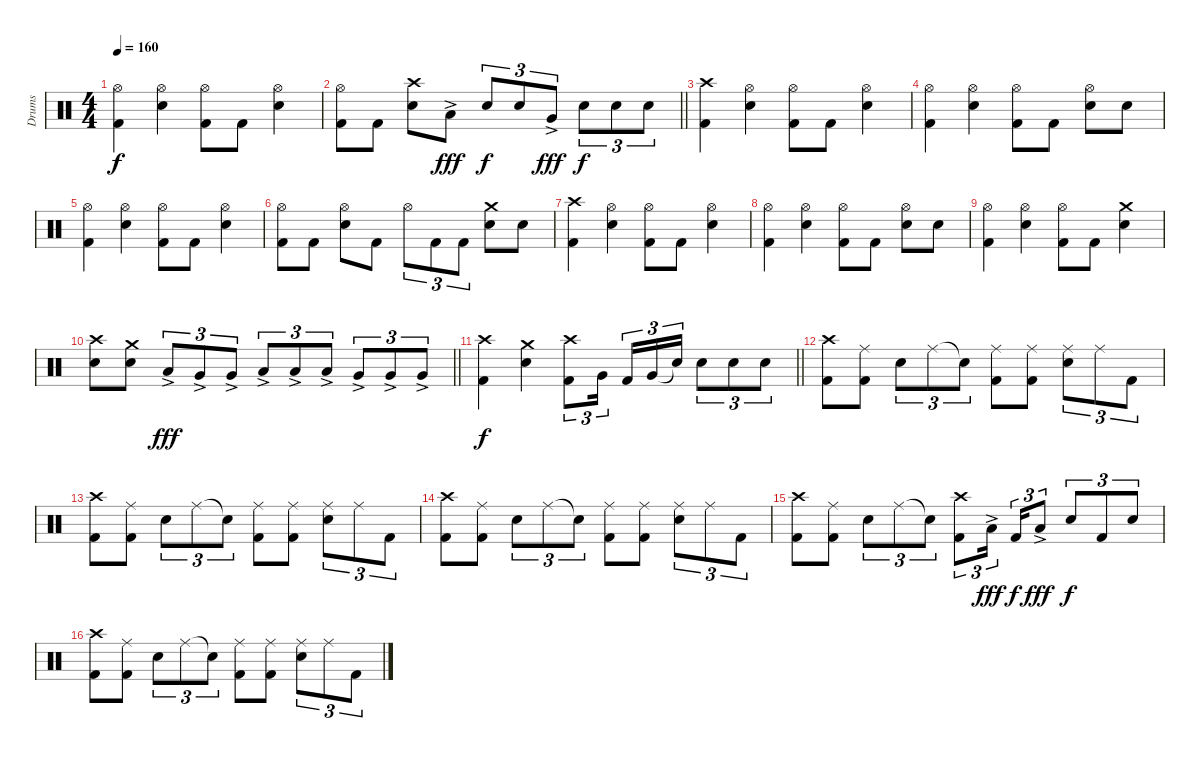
\track ("Drums" "Drums") {instrument percussion}
\staff {score}
\articulation defaults
\ts (4 4)
\tempo 160
\clef neutral
\ks c
("Hi-Hat (open)" "Kick (hit) 2").4{dy f} ("Hi-Hat (open)" "Snare (hit) 2").4 ("Hi-Hat (open)" "Kick (hit) 2").8 "Kick (hit) 2".8 ("Hi-Hat (open)" "Snare (hit) 2").4 |
\barLineRight lightlight
("Hi-Hat (open)" "Kick (hit) 2").8 "Kick (hit) 2".8 ("Crash high (hit)" "Snare (hit) 2").8 "Low Tom (hit)"{ac}.8{dy fff} "Snare (hit) 2".8{tu (3 2) dy f} "Snare (hit) 2".8{tu (3 2)} "Very Low Tom (hit)"{ac}.8{tu (3 2) dy fff} "Snare (hit) 2".8{tu (3 2) dy f} "Snare (hit) 2".8{tu (3 2)} "Snare (hit) 2".8{tu (3 2)} |
("Crash high (hit)" "Kick (hit) 2").4 ("Hi-Hat (open)" "Snare (hit) 2").4 ("Hi-Hat (open)" "Kick (hit) 2").8 "Kick (hit) 2".8 ("Hi-Hat (open)" "Snare (hit) 2").4 |
("Hi-Hat (open)" "Kick (hit) 2").4 ("Hi-Hat (open)" "Snare (hit) 2").4 ("Hi-Hat (open)" "Kick (hit) 2").8 "Kick (hit) 2".8 ("Hi-Hat (open)" "Snare (hit) 2").8 "Snare (hit) 2".8 |
("Hi-Hat (open)" "Kick (hit) 2").4 ("Hi-Hat (open)" "Snare (hit) 2").4 ("Hi-Hat (open)" "Kick (hit) 2").8 "Kick (hit) 2".8 ("Hi-Hat (open)" "Snare (hit) 2").4 |
("Hi-Hat (open)" "Kick (hit) 2").8 "Kick (hit) 2".8 ("Hi-Hat (open)" "Snare (hit) 2").8 "Kick (hit) 2".8 "Hi-Hat (open)".8{tu (3 2)} "Kick (hit) 2".8{tu (3 2)} "Kick (hit) 2".8{tu (3 2)} ("Crash medium (hit)" "Snare (hit) 2").8 "Snare (hit) 2".8 |
("Crash high (hit)" "Kick (hit) 2").4 ("Hi-Hat (open)" "Snare (hit) 2").4 ("Hi-Hat (open)" "Kick (hit) 2").8 "Kick (hit) 2".8 ("Hi-Hat (open)" "Snare (hit) 2").4 |
("Hi-Hat (open)" "Kick (hit) 2").4 ("Hi-Hat (open)" "Snare (hit) 2").4 ("Hi-Hat (open)" "Kick (hit) 2").8 "Kick (hit) 2".8 ("Hi-Hat (open)" "Snare (hit) 2").8 "Snare (hit) 2".8 |
("Hi-Hat (open)" "Kick (hit) 2").4 ("Hi-Hat (open)" "Snare (hit) 2").4 ("Hi-Hat (open)" "Kick (hit) 2").8 "Kick (hit) 2".8 ("Crash medium (hit)" "Snare (hit) 2").4 |
\barLineRight lightlight
("Crash high (hit)" "Snare (hit) 2").8 ("Crash medium (hit)" "Snare (hit) 2").8 "Low Tom (hit)"{ac}.8{tu (3 2) dy fff} "Very Low Tom (hit)"{ac}.8{tu (3 2)} "Very Low Tom (hit)"{ac}.8{tu (3 2)} "Low Tom (hit)"{ac}.8{tu (3 2)} "Low Tom (hit)"{ac}.8{tu (3 2)} "Low Tom (hit)"{ac}.8{tu (3 2)} "Very Low Tom (hit)"{ac}.8{tu (3 2)} "Very Low Tom (hit)"{ac}.8{tu (3 2)} "Very Low Tom (hit)"{ac}.8{tu (3 2)} |
\barLineRight lightlight
("Crash high (hit)" "Kick (hit) 2").4{dy f} ("Crash medium (hit)" "Snare (hit) 2").4 ("Crash high (hit)" "Kick (hit) 2").8{tu (3 2)} "Very Low Tom (hit)".16{tu (3 2) beam splitsecondary} "Kick (hit) 2".16{tu (3 2)} "Very Low Tom (hit)".16{tu (3 2)} "Snare (hit)"{t}.16{tu (3 2)} "Snare (hit) 2".8{tu (3 2)} "Snare (hit) 2".8{tu (3 2)} "Snare (hit) 2".8{tu (3 2)} |
("Crash high (hit)" "Kick (hit) 2").8 ("Ride (middle)" "Kick (hit) 2").8 "Snare (hit) 2".8{tu (3 2)} "Ride (middle)".8{tu (3 2)} "Snare (hit)"{t}.8{tu (3 2)} ("Ride (middle)" "Kick (hit) 2").8 ("Ride (middle)" "Kick (hit) 2").8 ("Ride (middle)" "Snare (hit) 2").8{tu (3 2)} "Ride (middle)".8{tu (3 2)} "Kick (hit) 2".8{tu (3 2)} |
("Crash high (hit)" "Kick (hit) 2").8 ("Ride (middle)" "Kick (hit) 2").8 "Snare (hit) 2".8{tu (3 2)} "Ride (middle)".8{tu (3 2)} "Snare (hit)"{t}.8{tu (3 2)} ("Ride (middle)" "Kick (hit) 2").8 ("Ride (middle)" "Kick (hit) 2").8 ("Ride (middle)" "Snare (hit) 2").8{tu (3 2)} "Ride (middle)".8{tu (3 2)} "Kick (hit) 2".8{tu (3 2)} |
("Crash high (hit)" "Kick (hit) 2").8 ("Ride (middle)" "Kick (hit) 2").8 "Snare (hit) 2".8{tu (3 2)} "Ride (middle)".8{tu (3 2)} "Snare (hit)"{t}.8{tu (3 2)} ("Ride (middle)" "Kick (hit) 2").8 ("Ride (middle)" "Kick (hit) 2").8 ("Ride (middle)" "Snare (hit) 2").8{tu (3 2)} "Ride (middle)".8{tu (3 2)} "Kick (hit) 2".8{tu (3 2)} |
("Crash high (hit)" "Kick (hit) 2").8 ("Ride (middle)" "Kick (hit) 2").8 "Snare (hit) 2".8{tu (3 2)} "Ride (middle)".8{tu (3 2)} "Snare (hit)"{t}.8{tu (3 2)} ("Crash high (hit)" "Kick (hit) 2").8{tu (3 2)} "Low Tom (hit)"{ac}.16{tu (3 2) dy fff beam splitsecondary} "Kick (hit) 2".16{tu (3 2) dy f} "Low Tom (hit)"{ac}.8{tu (3 2) dy fff} "Snare (hit) 2".8{tu (3 2) dy f} "Kick (hit) 2".8{tu (3 2)} "Snare (hit) 2".8{tu (3 2)} |
("Crash high (hit)" "Kick (hit) 2").8 ("Ride (middle)" "Kick (hit) 2").8 "Snare (hit) 2".8{tu (3 2)} "Ride (middle)".8{tu (3 2)} "Snare (hit)"{t}.8{tu (3 2)} ("Ride (middle)" "Kick (hit) 2").8 ("Ride (middle)" "Kick (hit) 2").8 ("Ride (middle)" "Snare (hit) 2").8{tu (3 2)} "Ride (middle)".8{tu (3 2)} "Kick (hit) 2".8{tu (3 2)}
